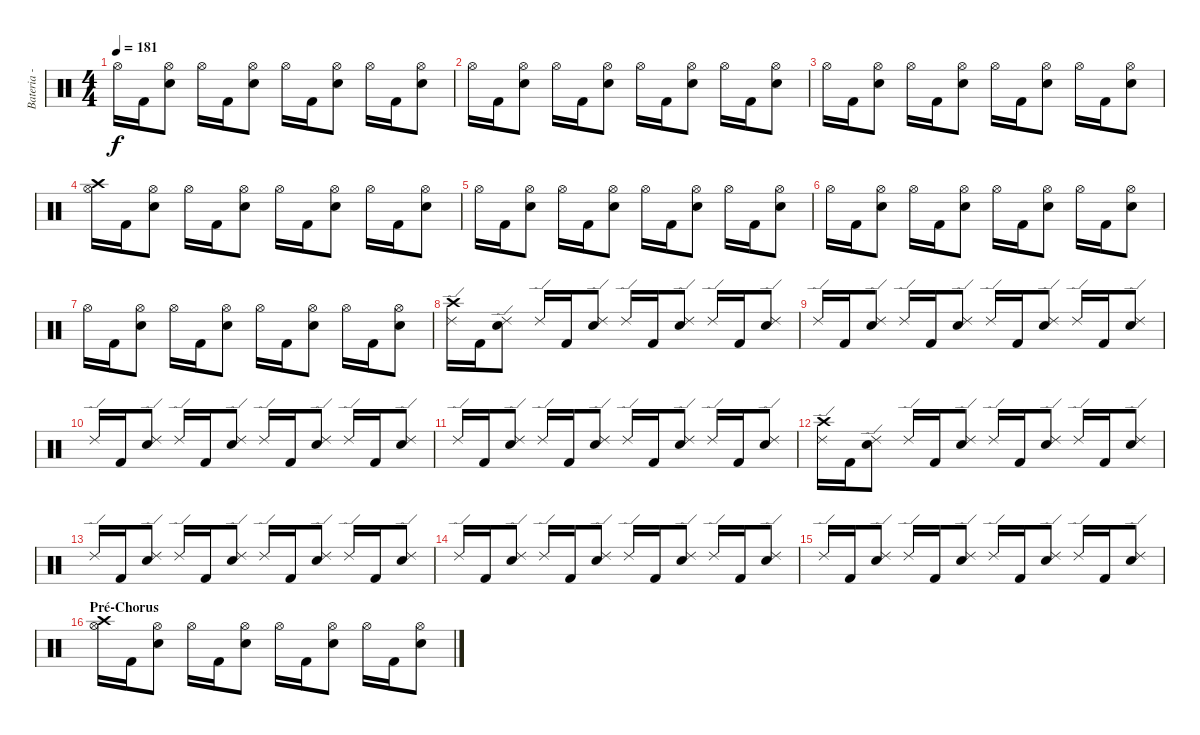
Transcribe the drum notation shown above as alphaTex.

\track ("Bateria - Larzon" "Bateria - ") {instrument percussion}
\staff {score}
\articulation defaults
\ts (4 4)
\tempo 181
\clef neutral
\ks c "Hi-Hat (open)".16{dy f} "Kick (hit) 2".16
("Electric Snare (hit)" "Hi-Hat (open)").8 "Hi-Hat (open)".16 "Kick (hit) 2".16 ("Electric Snare (hit)" "Hi-Hat (open)").8 "Hi-Hat (open)".16 "Kick (hit) 2".16 ("Electric Snare (hit)" "Hi-Hat (open)").8 "Hi-Hat (open)".16 "Kick (hit) 2".16 ("Electric Snare (hit)" "Hi-Hat (open)").8 |
"Hi-Hat (open)".16 "Kick (hit) 2".16 ("Electric Snare (hit)" "Hi-Hat (open)").8 "Hi-Hat (open)".16 "Kick (hit) 2".16 ("Electric Snare (hit)" "Hi-Hat (open)").8 "Hi-Hat (open)".16 "Kick (hit) 2".16 ("Electric Snare (hit)" "Hi-Hat (open)").8 "Hi-Hat (open)".16 "Kick (hit) 2".16 ("Electric Snare (hit)" "Hi-Hat (open)").8 |
"Hi-Hat (open)".16 "Kick (hit) 2".16 ("Electric Snare (hit)" "Hi-Hat (open)").8 "Hi-Hat (open)".16 "Kick (hit) 2".16 ("Electric Snare (hit)" "Hi-Hat (open)").8 "Hi-Hat (open)".16 "Kick (hit) 2".16 ("Electric Snare (hit)" "Hi-Hat (open)").8 "Hi-Hat (open)".16 "Kick (hit) 2".16 ("Electric Snare (hit)" "Hi-Hat (open)").8 |
("Crash high (hit)" "Hi-Hat (open)").16 "Kick (hit) 2".16 ("Electric Snare (hit)" "Hi-Hat (open)").8 "Hi-Hat (open)".16 "Kick (hit) 2".16 ("Electric Snare (hit)" "Hi-Hat (open)").8 "Hi-Hat (open)".16 "Kick (hit) 2".16 ("Electric Snare (hit)" "Hi-Hat (open)").8 "Hi-Hat (open)".16 "Kick (hit) 2".16 ("Electric Snare (hit)" "Hi-Hat (open)").8 |
"Hi-Hat (open)".16 "Kick (hit) 2".16 ("Electric Snare (hit)" "Hi-Hat (open)").8 "Hi-Hat (open)".16 "Kick (hit) 2".16 ("Electric Snare (hit)" "Hi-Hat (open)").8 "Hi-Hat (open)".16 "Kick (hit) 2".16 ("Electric Snare (hit)" "Hi-Hat (open)").8 "Hi-Hat (open)".16 "Kick (hit) 2".16 ("Electric Snare (hit)" "Hi-Hat (open)").8 |
"Hi-Hat (open)".16 "Kick (hit) 2".16 ("Electric Snare (hit)" "Hi-Hat (open)").8 "Hi-Hat (open)".16 "Kick (hit) 2".16 ("Electric Snare (hit)" "Hi-Hat (open)").8 "Hi-Hat (open)".16 "Kick (hit) 2".16 ("Electric Snare (hit)" "Hi-Hat (open)").8 "Hi-Hat (open)".16 "Kick (hit) 2".16 ("Electric Snare (hit)" "Hi-Hat (open)").8 |
"Hi-Hat (open)".16 "Kick (hit) 2".16 ("Electric Snare (hit)" "Hi-Hat (open)").8 "Hi-Hat (open)".16 "Kick (hit) 2".16 ("Electric Snare (hit)" "Hi-Hat (open)").8 "Hi-Hat (open)".16 "Kick (hit) 2".16 ("Electric Snare (hit)" "Hi-Hat (open)").8 "Hi-Hat (open)".16 "Kick (hit) 2".16 ("Electric Snare (hit)" "Hi-Hat (open)").8 |
("Crash high (hit)" "Ride (edge) 2").16 "Kick (hit) 2".16 ("Electric Snare (hit)" "Ride (edge) 2").8 "Ride (edge) 2".16 "Kick (hit) 2".16 ("Electric Snare (hit)" "Ride (edge) 2").8 "Ride (edge) 2".16 "Kick (hit) 2".16 ("Electric Snare (hit)" "Ride (edge) 2").8 "Ride (edge) 2".16 "Kick (hit) 2".16 ("Electric Snare (hit)" "Ride (edge) 2").8 |
"Ride (edge) 2".16 "Kick (hit) 2".16 ("Electric Snare (hit)" "Ride (edge) 2").8 "Ride (edge) 2".16 "Kick (hit) 2".16 ("Electric Snare (hit)" "Ride (edge) 2").8 "Ride (edge) 2".16 "Kick (hit) 2".16 ("Electric Snare (hit)" "Ride (edge) 2").8 "Ride (edge) 2".16 "Kick (hit) 2".16 ("Electric Snare (hit)" "Ride (edge) 2").8 |
"Ride (edge) 2".16 "Kick (hit) 2".16 ("Electric Snare (hit)" "Ride (edge) 2").8 "Ride (edge) 2".16 "Kick (hit) 2".16 ("Electric Snare (hit)" "Ride (edge) 2").8 "Ride (edge) 2".16 "Kick (hit) 2".16 ("Electric Snare (hit)" "Ride (edge) 2").8 "Ride (edge) 2".16 "Kick (hit) 2".16 ("Electric Snare (hit)" "Ride (edge) 2").8 |
"Ride (edge) 2".16 "Kick (hit) 2".16 ("Electric Snare (hit)" "Ride (edge) 2").8 "Ride (edge) 2".16 "Kick (hit) 2".16 ("Electric Snare (hit)" "Ride (edge) 2").8 "Ride (edge) 2".16 "Kick (hit) 2".16 ("Electric Snare (hit)" "Ride (edge) 2").8 "Ride (edge) 2".16 "Kick (hit) 2".16 ("Electric Snare (hit)" "Ride (edge) 2").8 |
("Crash high (hit)" "Ride (edge) 2").16 "Kick (hit) 2".16 ("Electric Snare (hit)" "Ride (edge) 2").8 "Ride (edge) 2".16 "Kick (hit) 2".16 ("Electric Snare (hit)" "Ride (edge) 2").8 "Ride (edge) 2".16 "Kick (hit) 2".16 ("Electric Snare (hit)" "Ride (edge) 2").8 "Ride (edge) 2".16 "Kick (hit) 2".16 ("Electric Snare (hit)" "Ride (edge) 2").8 |
"Ride (edge) 2".16 "Kick (hit) 2".16 ("Electric Snare (hit)" "Ride (edge) 2").8 "Ride (edge) 2".16 "Kick (hit) 2".16 ("Electric Snare (hit)" "Ride (edge) 2").8 "Ride (edge) 2".16 "Kick (hit) 2".16 ("Electric Snare (hit)" "Ride (edge) 2").8 "Ride (edge) 2".16 "Kick (hit) 2".16 ("Electric Snare (hit)" "Ride (edge) 2").8 |
"Ride (edge) 2".16 "Kick (hit) 2".16 ("Electric Snare (hit)" "Ride (edge) 2").8 "Ride (edge) 2".16 "Kick (hit) 2".16 ("Electric Snare (hit)" "Ride (edge) 2").8 "Ride (edge) 2".16 "Kick (hit) 2".16 ("Electric Snare (hit)" "Ride (edge) 2").8 "Ride (edge) 2".16 "Kick (hit) 2".16 ("Electric Snare (hit)" "Ride (edge) 2").8 |
"Ride (edge) 2".16 "Kick (hit) 2".16 ("Electric Snare (hit)" "Ride (edge) 2").8 "Ride (edge) 2".16 "Kick (hit) 2".16 ("Electric Snare (hit)" "Ride (edge) 2").8 "Ride (edge) 2".16 "Kick (hit) 2".16 ("Electric Snare (hit)" "Ride (edge) 2").8 "Ride (edge) 2".16 "Kick (hit) 2".16 ("Electric Snare (hit)" "Ride (edge) 2").8 |
\section ("" "Pré-Chorus")
("Crash high (hit)" "Hi-Hat (open)").16 "Kick (hit) 2".16 ("Electric Snare (hit)" "Hi-Hat (open)").8 "Hi-Hat (open)".16 "Kick (hit) 2".16 ("Electric Snare (hit)" "Hi-Hat (open)").8 "Hi-Hat (open)".16 "Kick (hit) 2".16 ("Electric Snare (hit)" "Hi-Hat (open)").8 "Hi-Hat (open)".16 "Kick (hit) 2".16 ("Electric Snare (hit)" "Hi-Hat (open)").8
